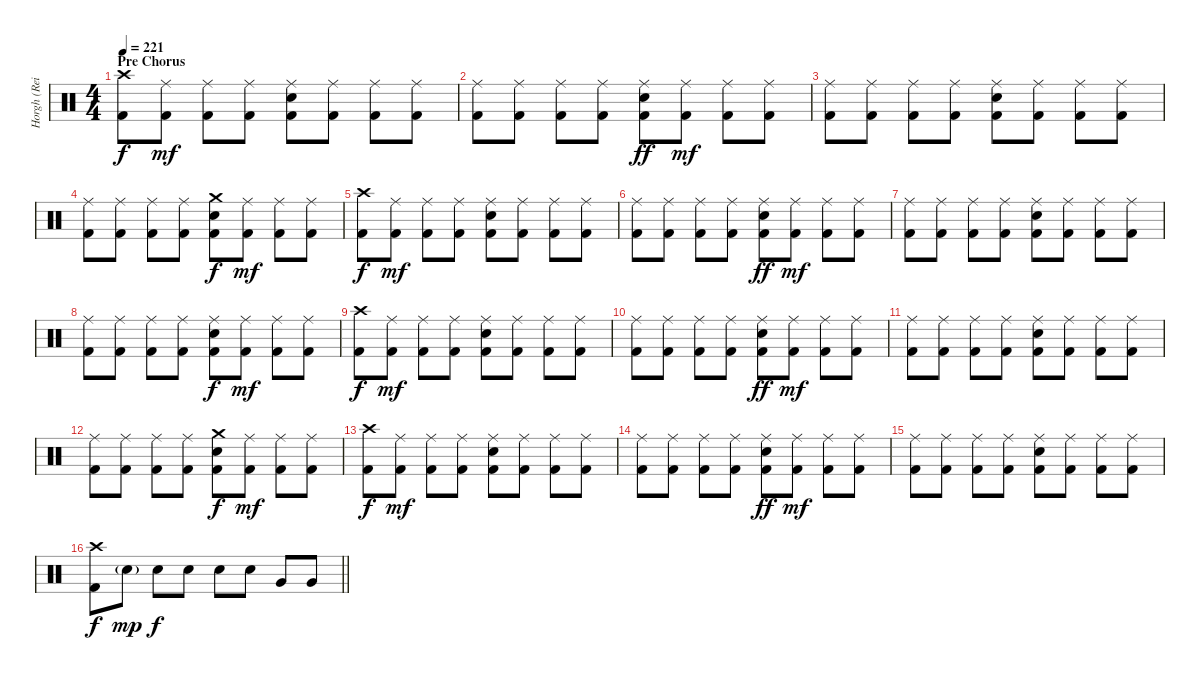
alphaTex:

\track ("Horgh (Reidar Horghagen)" "Horgh (Rei") {instrument percussion}
\staff {score}
\articulation defaults
\ts (4 4)
\section ("" "Pre Chorus")
\tempo 221
\clef neutral
\ks c
("Crash high (hit)" "Kick (hit) 2").8{dy f} ("Ride (middle)" "Kick (hit) 2").8{dy mf} ("Ride (middle)" "Kick (hit) 2").8 ("Ride (middle)" "Kick (hit) 2").8 ("Ride (middle)" "Snare (hit) 2" "Kick (hit) 2").8 ("Ride (middle)" "Kick (hit) 2").8 ("Ride (middle)" "Kick (hit) 2").8 ("Ride (middle)" "Kick (hit) 2").8 |
("Ride (middle)" "Kick (hit) 2").8 ("Ride (middle)" "Kick (hit) 2").8 ("Ride (middle)" "Kick (hit) 2").8 ("Ride (middle)" "Kick (hit) 2").8 ("Ride (middle)" "Snare (hit) 2" "Kick (hit) 2").8{dy ff} ("Ride (middle)" "Kick (hit) 2").8{dy mf} ("Ride (middle)" "Kick (hit) 2").8 ("Ride (middle)" "Kick (hit) 2").8 |
("Ride (middle)" "Kick (hit) 2").8 ("Ride (middle)" "Kick (hit) 2").8 ("Ride (middle)" "Kick (hit) 2").8 ("Ride (middle)" "Kick (hit) 2").8 ("Ride (middle)" "Snare (hit) 2" "Kick (hit) 2").8 ("Ride (middle)" "Kick (hit) 2").8 ("Ride (middle)" "Kick (hit) 2").8 ("Ride (middle)" "Kick (hit) 2").8 |
("Ride (middle)" "Kick (hit) 2").8 ("Ride (middle)" "Kick (hit) 2").8 ("Ride (middle)" "Kick (hit) 2").8 ("Ride (middle)" "Kick (hit) 2").8 ("Crash medium (hit)" "Snare (hit) 2" "Kick (hit) 2").8{dy f} ("Ride (middle)" "Kick (hit) 2").8{dy mf} ("Ride (middle)" "Kick (hit) 2").8 ("Ride (middle)" "Kick (hit) 2").8 |
("Crash high (hit)" "Kick (hit) 2").8{dy f} ("Ride (middle)" "Kick (hit) 2").8{dy mf} ("Ride (middle)" "Kick (hit) 2").8 ("Ride (middle)" "Kick (hit) 2").8 ("Ride (middle)" "Snare (hit) 2" "Kick (hit) 2").8 ("Ride (middle)" "Kick (hit) 2").8 ("Ride (middle)" "Kick (hit) 2").8 ("Ride (middle)" "Kick (hit) 2").8 |
("Ride (middle)" "Kick (hit) 2").8 ("Ride (middle)" "Kick (hit) 2").8 ("Ride (middle)" "Kick (hit) 2").8 ("Ride (middle)" "Kick (hit) 2").8 ("Ride (middle)" "Snare (hit) 2" "Kick (hit) 2").8{dy ff} ("Ride (middle)" "Kick (hit) 2").8{dy mf} ("Ride (middle)" "Kick (hit) 2").8 ("Ride (middle)" "Kick (hit) 2").8 |
("Ride (middle)" "Kick (hit) 2").8 ("Ride (middle)" "Kick (hit) 2").8 ("Ride (middle)" "Kick (hit) 2").8 ("Ride (middle)" "Kick (hit) 2").8 ("Ride (middle)" "Snare (hit) 2" "Kick (hit) 2").8 ("Ride (middle)" "Kick (hit) 2").8 ("Ride (middle)" "Kick (hit) 2").8 ("Ride (middle)" "Kick (hit) 2").8 |
("Ride (middle)" "Kick (hit) 2").8 ("Ride (middle)" "Kick (hit) 2").8 ("Ride (middle)" "Kick (hit) 2").8 ("Ride (middle)" "Kick (hit) 2").8 ("Ride (middle)" "Snare (hit) 2" "Kick (hit) 2").8{dy f} ("Ride (middle)" "Kick (hit) 2").8{dy mf} ("Ride (middle)" "Kick (hit) 2").8 ("Ride (middle)" "Kick (hit) 2").8 |
("Crash high (hit)" "Kick (hit) 2").8{dy f} ("Ride (middle)" "Kick (hit) 2").8{dy mf} ("Ride (middle)" "Kick (hit) 2").8 ("Ride (middle)" "Kick (hit) 2").8 ("Ride (middle)" "Snare (hit) 2" "Kick (hit) 2").8 ("Ride (middle)" "Kick (hit) 2").8 ("Ride (middle)" "Kick (hit) 2").8 ("Ride (middle)" "Kick (hit) 2").8 |
("Ride (middle)" "Kick (hit) 2").8 ("Ride (middle)" "Kick (hit) 2").8 ("Ride (middle)" "Kick (hit) 2").8 ("Ride (middle)" "Kick (hit) 2").8 ("Ride (middle)" "Snare (hit) 2" "Kick (hit) 2").8{dy ff} ("Ride (middle)" "Kick (hit) 2").8{dy mf} ("Ride (middle)" "Kick (hit) 2").8 ("Ride (middle)" "Kick (hit) 2").8 |
("Ride (middle)" "Kick (hit) 2").8 ("Ride (middle)" "Kick (hit) 2").8 ("Ride (middle)" "Kick (hit) 2").8 ("Ride (middle)" "Kick (hit) 2").8 ("Ride (middle)" "Snare (hit) 2" "Kick (hit) 2").8 ("Ride (middle)" "Kick (hit) 2").8 ("Ride (middle)" "Kick (hit) 2").8 ("Ride (middle)" "Kick (hit) 2").8 |
("Ride (middle)" "Kick (hit) 2").8 ("Ride (middle)" "Kick (hit) 2").8 ("Ride (middle)" "Kick (hit) 2").8 ("Ride (middle)" "Kick (hit) 2").8 ("Crash medium (hit)" "Snare (hit) 2" "Kick (hit) 2").8{dy f} ("Ride (middle)" "Kick (hit) 2").8{dy mf} ("Ride (middle)" "Kick (hit) 2").8 ("Ride (middle)" "Kick (hit) 2").8 |
("Crash high (hit)" "Kick (hit) 2").8{dy f} ("Ride (middle)" "Kick (hit) 2").8{dy mf} ("Ride (middle)" "Kick (hit) 2").8 ("Ride (middle)" "Kick (hit) 2").8 ("Ride (middle)" "Snare (hit) 2" "Kick (hit) 2").8 ("Ride (middle)" "Kick (hit) 2").8 ("Ride (middle)" "Kick (hit) 2").8 ("Ride (middle)" "Kick (hit) 2").8 |
("Ride (middle)" "Kick (hit) 2").8 ("Ride (middle)" "Kick (hit) 2").8 ("Ride (middle)" "Kick (hit) 2").8 ("Ride (middle)" "Kick (hit) 2").8 ("Ride (middle)" "Snare (hit) 2" "Kick (hit) 2").8{dy ff} ("Ride (middle)" "Kick (hit) 2").8{dy mf} ("Ride (middle)" "Kick (hit) 2").8 ("Ride (middle)" "Kick (hit) 2").8 |
("Ride (middle)" "Kick (hit) 2").8 ("Ride (middle)" "Kick (hit) 2").8 ("Ride (middle)" "Kick (hit) 2").8 ("Ride (middle)" "Kick (hit) 2").8 ("Ride (middle)" "Snare (hit) 2" "Kick (hit) 2").8 ("Ride (middle)" "Kick (hit) 2").8 ("Ride (middle)" "Kick (hit) 2").8 ("Ride (middle)" "Kick (hit) 2").8 |
\barLineRight lightlight
("Crash high (hit)" "Kick (hit) 2").8{dy f} "Snare (hit) 2"{g}.8{dy mp} "Snare (hit) 2".8{dy f} "Snare (hit) 2".8 "Snare (hit) 2".8 "Snare (hit) 2".8 "Very Low Tom (hit)".8 "Very Low Tom (hit)".8
